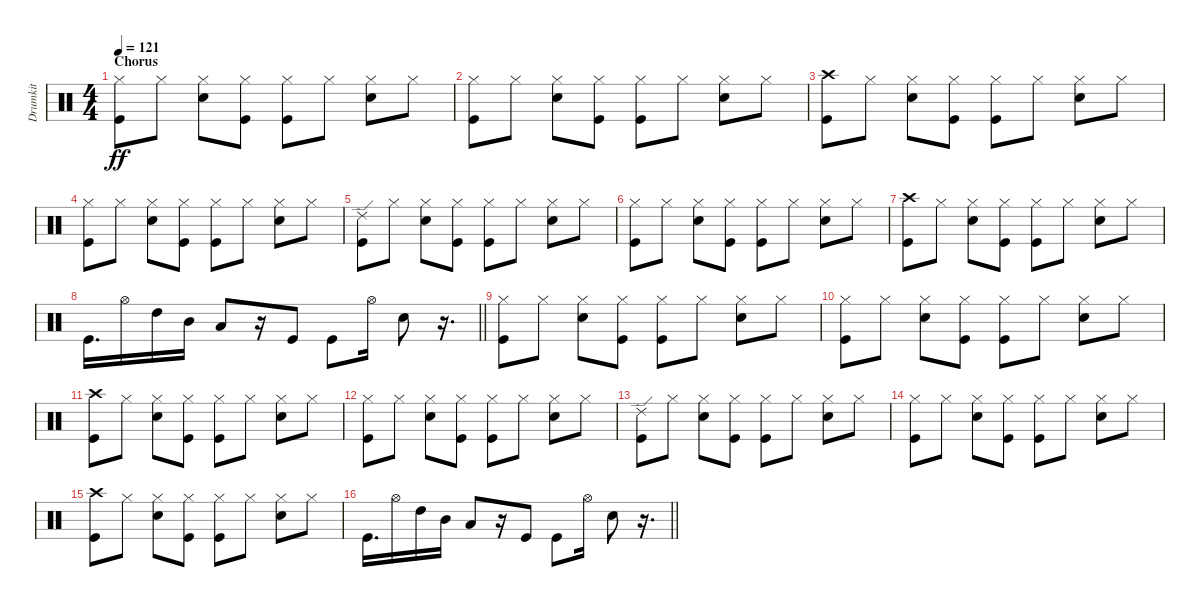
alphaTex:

\track ("Drumkit" "Drumkit") {instrument percussion}
\staff {score}
\articulation defaults
\ts (4 4)
\section ("" "Chorus")
\tempo 121
\clef neutral
\ks c
("Kick (hit)" "Hi-Hat (closed)").8{dy ff} "Hi-Hat (closed)".8 ("Hi-Hat (closed)" "Snare (hit) 2").8 ("Kick (hit)" "Hi-Hat (closed)").8 ("Hi-Hat (closed)" "Kick (hit)").8 "Hi-Hat (closed)".8 ("Hi-Hat (closed)" "Snare (hit) 2").8 "Hi-Hat (closed)".8 |
("Kick (hit)" "Hi-Hat (closed)").8 "Hi-Hat (closed)".8 ("Hi-Hat (closed)" "Snare (hit) 2").8 ("Kick (hit)" "Hi-Hat (closed)").8 ("Hi-Hat (closed)" "Kick (hit)").8 "Hi-Hat (closed)".8 ("Hi-Hat (closed)" "Snare (hit) 2").8 "Hi-Hat (closed)".8 |
("Kick (hit)" "Crash high (hit)").8 "Hi-Hat (closed)".8 ("Hi-Hat (closed)" "Snare (hit) 2").8 ("Kick (hit)" "Hi-Hat (closed)").8 ("Hi-Hat (closed)" "Kick (hit)").8 "Hi-Hat (closed)".8 ("Hi-Hat (closed)" "Snare (hit) 2").8 "Hi-Hat (closed)".8 |
("Kick (hit)" "Hi-Hat (closed)").8 "Hi-Hat (closed)".8 ("Hi-Hat (closed)" "Snare (hit) 2").8 ("Kick (hit)" "Hi-Hat (closed)").8 ("Hi-Hat (closed)" "Kick (hit)").8 "Hi-Hat (closed)".8 ("Hi-Hat (closed)" "Snare (hit) 2").8 "Hi-Hat (closed)".8 |
("Kick (hit)" "Ride (edge) 2").8 "Hi-Hat (closed)".8 ("Hi-Hat (closed)" "Snare (hit) 2").8 ("Kick (hit)" "Hi-Hat (closed)").8 ("Hi-Hat (closed)" "Kick (hit)").8 "Hi-Hat (closed)".8 ("Hi-Hat (closed)" "Snare (hit) 2").8 "Hi-Hat (closed)".8 |
("Kick (hit)" "Hi-Hat (closed)").8 "Hi-Hat (closed)".8 ("Hi-Hat (closed)" "Snare (hit) 2").8 ("Kick (hit)" "Hi-Hat (closed)").8 ("Hi-Hat (closed)" "Kick (hit)").8 "Hi-Hat (closed)".8 ("Hi-Hat (closed)" "Snare (hit) 2").8 "Hi-Hat (closed)".8 |
("Kick (hit)" "Crash high (hit)").8 "Hi-Hat (closed)".8 ("Hi-Hat (closed)" "Snare (hit) 2").8 ("Kick (hit)" "Hi-Hat (closed)").8 ("Hi-Hat (closed)" "Kick (hit)").8 "Hi-Hat (closed)".8 ("Hi-Hat (closed)" "Snare (hit) 2").8 "Hi-Hat (closed)".8 |
\barLineRight lightlight "Kick (hit)".16{d} "Hi-Hat (open)".16 "High Tom (hit)".16 "Mid Tom (hit)".16 "Low Tom (hit)".8
r.16 "Kick (hit)".8 "Kick (hit)".8 "Hi-Hat (open)".16 "Snare (hit) 2".8 r.16{d} |
("Kick (hit)" "Hi-Hat (closed)").8 "Hi-Hat (closed)".8 ("Hi-Hat (closed)" "Snare (hit) 2").8 ("Kick (hit)" "Hi-Hat (closed)").8 ("Hi-Hat (closed)" "Kick (hit)").8 "Hi-Hat (closed)".8 ("Hi-Hat (closed)" "Snare (hit) 2").8 "Hi-Hat (closed)".8 |
("Kick (hit)" "Hi-Hat (closed)").8 "Hi-Hat (closed)".8 ("Hi-Hat (closed)" "Snare (hit) 2").8 ("Kick (hit)" "Hi-Hat (closed)").8 ("Hi-Hat (closed)" "Kick (hit)").8 "Hi-Hat (closed)".8 ("Hi-Hat (closed)" "Snare (hit) 2").8 "Hi-Hat (closed)".8 |
("Kick (hit)" "Crash high (hit)").8 "Hi-Hat (closed)".8 ("Hi-Hat (closed)" "Snare (hit) 2").8 ("Kick (hit)" "Hi-Hat (closed)").8 ("Hi-Hat (closed)" "Kick (hit)").8 "Hi-Hat (closed)".8 ("Hi-Hat (closed)" "Snare (hit) 2").8 "Hi-Hat (closed)".8 |
("Kick (hit)" "Hi-Hat (closed)").8 "Hi-Hat (closed)".8 ("Hi-Hat (closed)" "Snare (hit) 2").8 ("Kick (hit)" "Hi-Hat (closed)").8 ("Hi-Hat (closed)" "Kick (hit)").8 "Hi-Hat (closed)".8 ("Hi-Hat (closed)" "Snare (hit) 2").8 "Hi-Hat (closed)".8 |
("Kick (hit)" "Ride (edge) 2").8 "Hi-Hat (closed)".8 ("Hi-Hat (closed)" "Snare (hit) 2").8 ("Kick (hit)" "Hi-Hat (closed)").8 ("Hi-Hat (closed)" "Kick (hit)").8 "Hi-Hat (closed)".8 ("Hi-Hat (closed)" "Snare (hit) 2").8 "Hi-Hat (closed)".8 |
("Kick (hit)" "Hi-Hat (closed)").8 "Hi-Hat (closed)".8 ("Hi-Hat (closed)" "Snare (hit) 2").8 ("Kick (hit)" "Hi-Hat (closed)").8 ("Hi-Hat (closed)" "Kick (hit)").8 "Hi-Hat (closed)".8 ("Hi-Hat (closed)" "Snare (hit) 2").8 "Hi-Hat (closed)".8 |
("Kick (hit)" "Crash high (hit)").8 "Hi-Hat (closed)".8 ("Hi-Hat (closed)" "Snare (hit) 2").8 ("Kick (hit)" "Hi-Hat (closed)").8 ("Hi-Hat (closed)" "Kick (hit)").8 "Hi-Hat (closed)".8 ("Hi-Hat (closed)" "Snare (hit) 2").8 "Hi-Hat (closed)".8 |
\barLineRight lightlight "Kick (hit)".16{d} "Hi-Hat (open)".16 "High Tom (hit)".16 "Mid Tom (hit)".16 "Low Tom (hit)".8
r.16 "Kick (hit)".8 "Kick (hit)".8 "Hi-Hat (open)".16 "Snare (hit) 2".8 r.16{d}
